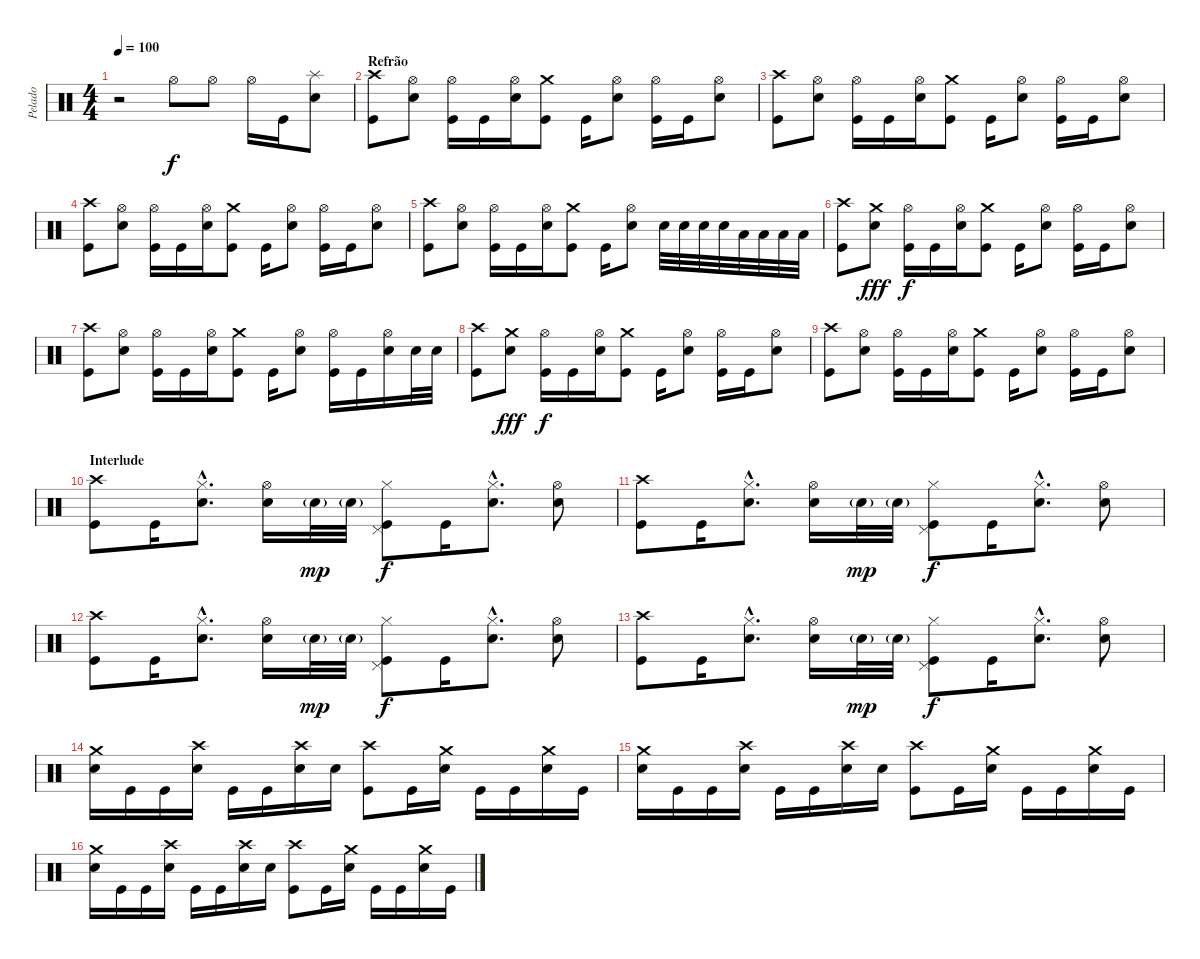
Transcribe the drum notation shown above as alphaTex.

\track ("Pelado" "Pelado") {instrument percussion}
\staff {score}
\articulation defaults
\ts (4 4)
\tempo 100
\clef neutral
\ks c
r.2{dy f} "Hi-Hat (open)".8{volume 13} "Hi-Hat (open)".8 "Hi-Hat (open)".16 "Kick (hit)".16 ("Splash (hit)" "Electric Snare (hit)").8 |
\section ("" "Refrão")
("Crash high (hit)" "Kick (hit)").8 ("Hi-Hat (open)" "Electric Snare (hit)").8 ("Hi-Hat (open)" "Kick (hit)").16 "Kick (hit)".16 ("Hi-Hat (open)" "Electric Snare (hit)").16 ("Crash medium (hit)" "Kick (hit)").8 "Kick (hit)".16 ("Hi-Hat (open)" "Electric Snare (hit)").8 ("Hi-Hat (open)" "Kick (hit)").16 "Kick (hit)".16 ("Hi-Hat (open)" "Electric Snare (hit)").8 |
("Crash high (hit)" "Kick (hit)").8 ("Hi-Hat (open)" "Electric Snare (hit)").8 ("Hi-Hat (open)" "Kick (hit)").16 "Kick (hit)".16 ("Hi-Hat (open)" "Electric Snare (hit)").16 ("Crash medium (hit)" "Kick (hit)").8 "Kick (hit)".16 ("Hi-Hat (open)" "Electric Snare (hit)").8 ("Hi-Hat (open)" "Kick (hit)").16 "Kick (hit)".16 ("Hi-Hat (open)" "Electric Snare (hit)").8 |
("Crash high (hit)" "Kick (hit)").8 ("Hi-Hat (open)" "Electric Snare (hit)").8 ("Hi-Hat (open)" "Kick (hit)").16 "Kick (hit)".16 ("Hi-Hat (open)" "Electric Snare (hit)").16 ("Crash medium (hit)" "Kick (hit)").8 "Kick (hit)".16 ("Hi-Hat (open)" "Electric Snare (hit)").8 ("Hi-Hat (open)" "Kick (hit)").16 "Kick (hit)".16 ("Hi-Hat (open)" "Electric Snare (hit)").8 |
("Crash high (hit)" "Kick (hit)").8 ("Hi-Hat (open)" "Electric Snare (hit)").8 ("Hi-Hat (open)" "Kick (hit)").16 "Kick (hit)".16 ("Hi-Hat (open)" "Electric Snare (hit)").16 ("Crash medium (hit)" "Kick (hit)").8 "Kick (hit)".16 ("Hi-Hat (open)" "Electric Snare (hit)").8 "Electric Snare (hit)".32 "Electric Snare (hit)".32 "Electric Snare (hit)".32 "Electric Snare (hit)".32 "Low Tom (hit)".32 "Low Tom (hit)".32 "Low Tom (hit)".32 "Low Tom (hit)".32 |
("Crash high (hit)" "Kick (hit)").8 ("Crash medium (hit)" "Electric Snare (hit)").8{dy fff} ("Hi-Hat (open)" "Kick (hit)").16{dy f} "Kick (hit)".16 ("Hi-Hat (open)" "Electric Snare (hit)").16 ("Crash medium (hit)" "Kick (hit)").8 "Kick (hit)".16 ("Hi-Hat (open)" "Electric Snare (hit)").8 ("Hi-Hat (open)" "Kick (hit)").16 "Kick (hit)".16 ("Hi-Hat (open)" "Electric Snare (hit)").8 |
("Crash high (hit)" "Kick (hit)").8 ("Hi-Hat (open)" "Electric Snare (hit)").8 ("Hi-Hat (open)" "Kick (hit)").16 "Kick (hit)".16 ("Hi-Hat (open)" "Electric Snare (hit)").16 ("Crash medium (hit)" "Kick (hit)").8 "Kick (hit)".16 ("Hi-Hat (open)" "Electric Snare (hit)").8 ("Hi-Hat (open)" "Kick (hit)").16 "Kick (hit)".16 ("Hi-Hat (open)" "Electric Snare (hit)").16 "Electric Snare (hit)".32 "Electric Snare (hit)".32 |
("Crash high (hit)" "Kick (hit)").8 ("Crash medium (hit)" "Electric Snare (hit)").8{dy fff} ("Hi-Hat (open)" "Kick (hit)").16{dy f} "Kick (hit)".16 ("Hi-Hat (open)" "Electric Snare (hit)").16 ("Crash medium (hit)" "Kick (hit)").8 "Kick (hit)".16 ("Hi-Hat (open)" "Electric Snare (hit)").8 ("Hi-Hat (open)" "Kick (hit)").16 "Kick (hit)".16 ("Hi-Hat (open)" "Electric Snare (hit)").8 |
("Crash high (hit)" "Kick (hit)").8 ("Hi-Hat (open)" "Electric Snare (hit)").8 ("Hi-Hat (open)" "Kick (hit)").16 "Kick (hit)".16 ("Hi-Hat (open)" "Electric Snare (hit)").16 ("Crash medium (hit)" "Kick (hit)").8 "Kick (hit)".16 ("Hi-Hat (open)" "Electric Snare (hit)").8 ("Hi-Hat (open)" "Kick (hit)").16 "Kick (hit)".16 ("Hi-Hat (open)" "Electric Snare (hit)").8 |
\section ("" "Interlude")
("Crash high (hit)" "Kick (hit)").8 "Kick (hit)".16 ("Hi-Hat (closed)"{hac} "Electric Snare (hit)"{hac}).8{d} ("Hi-Hat (open)" "Electric Snare (hit)").16 "Electric Snare (hit)"{g}.32{dy mp} "Electric Snare (hit)"{g}.32 ("Hi-Hat (closed)" "Pedal Hi-Hat (hit)" "Kick (hit)").8{dy f} "Kick (hit)".16 ("Hi-Hat (closed)"{hac} "Electric Snare (hit)"{hac}).8{d} ("Hi-Hat (open)" "Electric Snare (hit)").8 |
("Crash high (hit)" "Kick (hit)").8 "Kick (hit)".16 ("Hi-Hat (closed)"{hac} "Electric Snare (hit)"{hac}).8{d} ("Hi-Hat (open)" "Electric Snare (hit)").16 "Electric Snare (hit)"{g}.32{dy mp} "Electric Snare (hit)"{g}.32 ("Hi-Hat (closed)" "Pedal Hi-Hat (hit)" "Kick (hit)").8{dy f} "Kick (hit)".16 ("Hi-Hat (closed)"{hac} "Electric Snare (hit)"{hac}).8{d} ("Hi-Hat (open)" "Electric Snare (hit)").8 |
("Crash high (hit)" "Kick (hit)").8 "Kick (hit)".16 ("Hi-Hat (closed)"{hac} "Electric Snare (hit)"{hac}).8{d} ("Hi-Hat (open)" "Electric Snare (hit)").16 "Electric Snare (hit)"{g}.32{dy mp} "Electric Snare (hit)"{g}.32 ("Hi-Hat (closed)" "Pedal Hi-Hat (hit)" "Kick (hit)").8{dy f} "Kick (hit)".16 ("Hi-Hat (closed)"{hac} "Electric Snare (hit)"{hac}).8{d} ("Hi-Hat (open)" "Electric Snare (hit)").8 |
("Crash high (hit)" "Kick (hit)").8 "Kick (hit)".16 ("Hi-Hat (closed)"{hac} "Electric Snare (hit)"{hac}).8{d} ("Hi-Hat (open)" "Electric Snare (hit)").16 "Electric Snare (hit)"{g}.32{dy mp} "Electric Snare (hit)"{g}.32 ("Hi-Hat (closed)" "Pedal Hi-Hat (hit)" "Kick (hit)").8{dy f} "Kick (hit)".16 ("Hi-Hat (closed)"{hac} "Electric Snare (hit)"{hac}).8{d} ("Hi-Hat (open)" "Electric Snare (hit)").8 |
("Crash medium (hit)" "Electric Snare (hit)").16 "Kick (hit)".16 "Kick (hit)".16 ("Crash high (hit)" "Electric Snare (hit)").16 "Kick (hit)".16 "Kick (hit)".16 ("Crash high (hit)" "Electric Snare (hit)").16 "Electric Snare (hit)".16 ("Crash high (hit)" "Kick (hit)").8 "Kick (hit)".16 ("Crash medium (hit)" "Electric Snare (hit)").16 "Kick (hit)".16 "Kick (hit)".16 ("Crash medium (hit)" "Electric Snare (hit)").16 "Kick (hit)".16 |
("Crash medium (hit)" "Electric Snare (hit)").16 "Kick (hit)".16 "Kick (hit)".16 ("Crash high (hit)" "Electric Snare (hit)").16 "Kick (hit)".16 "Kick (hit)".16 ("Crash high (hit)" "Electric Snare (hit)").16 "Electric Snare (hit)".16 ("Crash high (hit)" "Kick (hit)").8 "Kick (hit)".16 ("Crash medium (hit)" "Electric Snare (hit)").16 "Kick (hit)".16 "Kick (hit)".16 ("Crash medium (hit)" "Electric Snare (hit)").16 "Kick (hit)".16 |
("Crash medium (hit)" "Electric Snare (hit)").16 "Kick (hit)".16 "Kick (hit)".16 ("Crash high (hit)" "Electric Snare (hit)").16 "Kick (hit)".16 "Kick (hit)".16 ("Crash high (hit)" "Electric Snare (hit)").16 "Electric Snare (hit)".16 ("Crash high (hit)" "Kick (hit)").8 "Kick (hit)".16 ("Crash medium (hit)" "Electric Snare (hit)").16 "Kick (hit)".16 "Kick (hit)".16 ("Crash medium (hit)" "Electric Snare (hit)").16 "Kick (hit)".16
